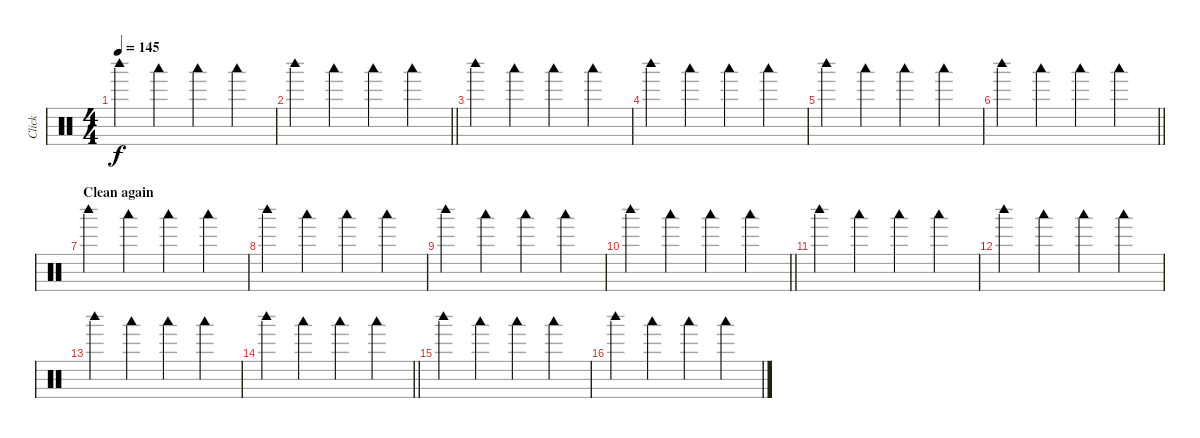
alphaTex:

\track ("Click" "Click") {mute instrument percussion}
\staff {score}
\articulation defaults
\ts (4 4)
\tempo 145
\clef neutral
\ks c "Woodblock high (hit)".4{dy f} "Woodblock low (hit)".4 "Woodblock low (hit)".4 "Woodblock low (hit)".4
|
\barLineRight lightlight "Woodblock high (hit)".4 "Woodblock low (hit)".4 "Woodblock low (hit)".4 "Woodblock low (hit)".4
|
"Woodblock high (hit)".4 "Woodblock low (hit)".4 "Woodblock low (hit)".4 "Woodblock low (hit)".4 |
"Woodblock high (hit)".4 "Woodblock low (hit)".4 "Woodblock low (hit)".4 "Woodblock low (hit)".4 |
"Woodblock high (hit)".4 "Woodblock low (hit)".4 "Woodblock low (hit)".4 "Woodblock low (hit)".4 |
\barLineRight lightlight "Woodblock high (hit)".4 "Woodblock low (hit)".4 "Woodblock low (hit)".4 "Woodblock low (hit)".4
|
\section ("" "Clean again")
"Woodblock high (hit)".4 "Woodblock low (hit)".4 "Woodblock low (hit)".4 "Woodblock low (hit)".4 |
"Woodblock high (hit)".4 "Woodblock low (hit)".4 "Woodblock low (hit)".4 "Woodblock low (hit)".4 |
"Woodblock high (hit)".4 "Woodblock low (hit)".4 "Woodblock low (hit)".4 "Woodblock low (hit)".4 |
\barLineRight lightlight "Woodblock high (hit)".4 "Woodblock low (hit)".4 "Woodblock low (hit)".4 "Woodblock low (hit)".4
|
"Woodblock high (hit)".4 "Woodblock low (hit)".4 "Woodblock low (hit)".4 "Woodblock low (hit)".4 |
"Woodblock high (hit)".4 "Woodblock low (hit)".4 "Woodblock low (hit)".4 "Woodblock low (hit)".4 |
"Woodblock high (hit)".4 "Woodblock low (hit)".4 "Woodblock low (hit)".4 "Woodblock low (hit)".4 |
\barLineRight lightlight "Woodblock high (hit)".4 "Woodblock low (hit)".4 "Woodblock low (hit)".4 "Woodblock low (hit)".4
|
"Woodblock high (hit)".4 "Woodblock low (hit)".4 "Woodblock low (hit)".4 "Woodblock low (hit)".4 |
"Woodblock high (hit)".4 "Woodblock low (hit)".4 "Woodblock low (hit)".4 "Woodblock low (hit)".4
